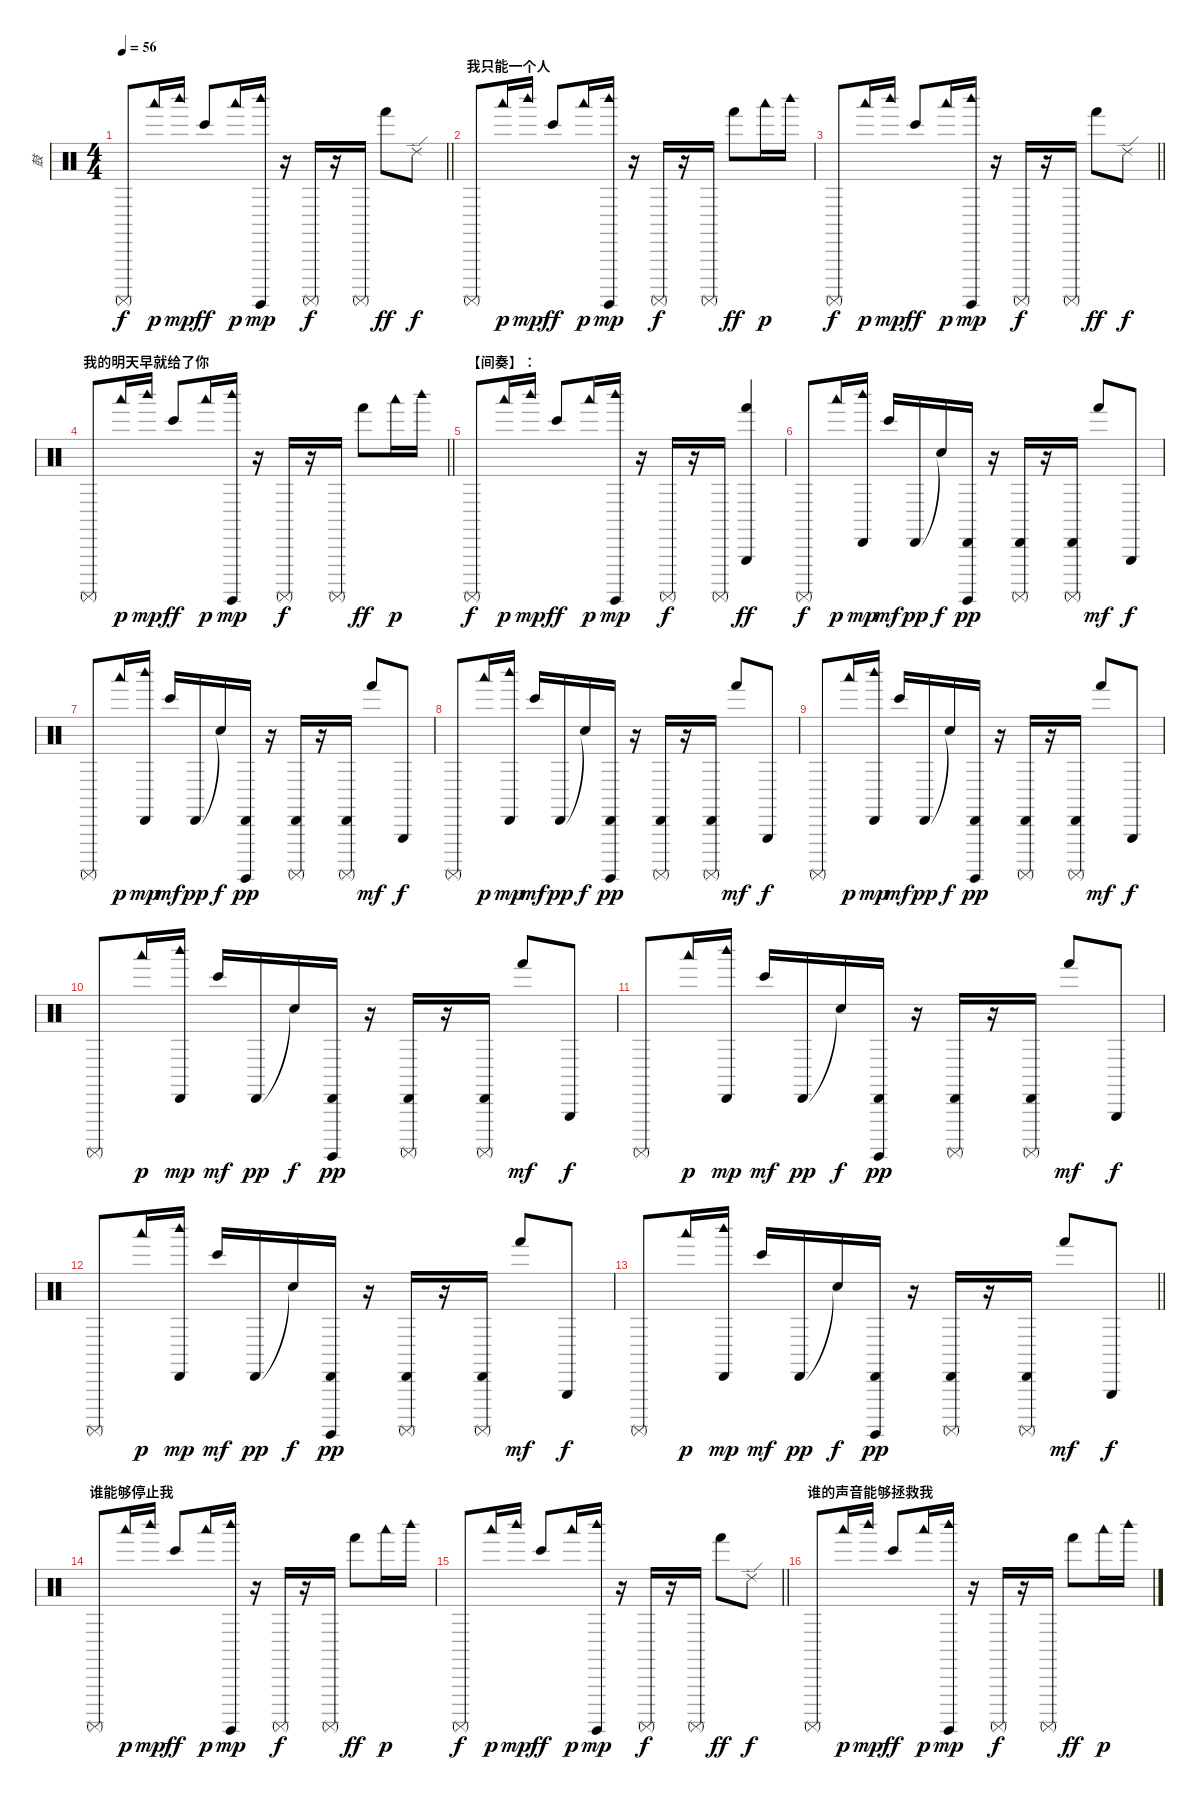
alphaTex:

\track ("鼓" "鼓") {instrument percussion}
\staff {score}
\articulation defaults
\ts (4 4)
\tempo 56
\clef neutral
\barLineRight lightlight
\ks c "Surdo (mute)".8{dy f} "Woodblock low (hit)".16{dy p} "Woodblock high (hit)".16{dy mp} "Bongo High (hit)".8{dy ff} "Woodblock low (hit)".16{dy p}
("Woodblock high (hit)" "Surdo (hit)").16{dy mp} r.16 "Surdo (mute)".16{dy f} r.16 "Surdo (mute)".16 "Hand (hit)".8{dy ff} "Ride (edge) 2".8{dy f} |
\section ("" "我只能一个人")
"Surdo (mute)".8 "Woodblock low (hit)".16{dy p} "Woodblock high (hit)".16{dy mp} "Bongo High (hit)".8{dy ff} "Woodblock low (hit)".16{dy p} ("Woodblock high (hit)" "Surdo (hit)").16{dy mp} r.16 "Surdo (mute)".16{dy f} r.16 "Surdo (mute)".16 "Hand (hit)".8{dy ff} "Woodblock low (hit)".16{dy p} "Woodblock high (hit)".16 |
\barLineRight lightlight "Surdo (mute)".8{dy f} "Woodblock low (hit)".16{dy p} "Woodblock high (hit)".16{dy mp} "Bongo High (hit)".8{dy ff} "Woodblock low (hit)".16{dy p}
("Woodblock high (hit)" "Surdo (hit)").16{dy mp} r.16 "Surdo (mute)".16{dy f} r.16 "Surdo (mute)".16 "Hand (hit)".8{dy ff} "Ride (edge) 2".8{dy f} |
\section ("" "我的明天早就给了你")
\barLineRight lightlight "Surdo (mute)".8 "Woodblock low (hit)".16{dy p} "Woodblock high (hit)".16{dy mp} "Bongo High (hit)".8{dy ff} "Woodblock low (hit)".16{dy p}
("Woodblock high (hit)" "Surdo (hit)").16{dy mp} r.16 "Surdo (mute)".16{dy f} r.16 "Surdo (mute)".16 "Hand (hit)".8{dy ff} "Woodblock low (hit)".16{dy p} "Woodblock high (hit)".16 |
\section ("" "【间奏】：")
"Surdo (mute)".8{dy f} "Woodblock low (hit)".16{dy p} "Woodblock high (hit)".16{dy mp} "Bongo High (hit)".8{dy ff} "Woodblock low (hit)".16{dy p} ("Woodblock high (hit)" "Surdo (hit)").16{dy mp} r.16 "Surdo (mute)".16{dy f} r.16 "Surdo (mute)".16 ("Triangle (hit)" "Hand (hit)").4{dy ff} |
"Surdo (mute)".8{dy f} "Woodblock low (hit)".16{dy p} ("Cabasa (hit)" "Woodblock high (hit)").16{dy mp} "Bongo High (hit)".16{dy mf} "Cabasa (hit)".16{dy pp} "Snare (hit)"{t}.16{dy f} ("Cabasa (hit)" "Surdo (hit)").16{dy pp} r.16 ("Cabasa (hit)" "Surdo (mute)").16 r.16 ("Cabasa (hit)" "Surdo (mute)").16 "Hand (hit)".8{dy mf} "Triangle (hit)".8{dy f} |
"Surdo (mute)".8 "Woodblock low (hit)".16{dy p} ("Cabasa (hit)" "Woodblock high (hit)").16{dy mp} "Bongo High (hit)".16{dy mf} "Cabasa (hit)".16{dy pp} "Snare (hit)"{t}.16{dy f} ("Cabasa (hit)" "Surdo (hit)").16{dy pp} r.16 ("Cabasa (hit)" "Surdo (mute)").16 r.16 ("Cabasa (hit)" "Surdo (mute)").16 "Hand (hit)".8{dy mf} "Triangle (hit)".8{dy f} |
"Surdo (mute)".8 "Woodblock low (hit)".16{dy p} ("Cabasa (hit)" "Woodblock high (hit)").16{dy mp} "Bongo High (hit)".16{dy mf} "Cabasa (hit)".16{dy pp} "Snare (hit)"{t}.16{dy f} ("Cabasa (hit)" "Surdo (hit)").16{dy pp} r.16 ("Cabasa (hit)" "Surdo (mute)").16 r.16 ("Cabasa (hit)" "Surdo (mute)").16 "Hand (hit)".8{dy mf} "Triangle (hit)".8{dy f} |
"Surdo (mute)".8 "Woodblock low (hit)".16{dy p} ("Cabasa (hit)" "Woodblock high (hit)").16{dy mp} "Bongo High (hit)".16{dy mf} "Cabasa (hit)".16{dy pp} "Snare (hit)"{t}.16{dy f} ("Cabasa (hit)" "Surdo (hit)").16{dy pp} r.16 ("Cabasa (hit)" "Surdo (mute)").16 r.16 ("Cabasa (hit)" "Surdo (mute)").16 "Hand (hit)".8{dy mf} "Triangle (hit)".8{dy f} |
"Surdo (mute)".8 "Woodblock low (hit)".16{dy p} ("Cabasa (hit)" "Woodblock high (hit)").16{dy mp} "Bongo High (hit)".16{dy mf} "Cabasa (hit)".16{dy pp} "Snare (hit)"{t}.16{dy f} ("Cabasa (hit)" "Surdo (hit)").16{dy pp} r.16 ("Cabasa (hit)" "Surdo (mute)").16 r.16 ("Cabasa (hit)" "Surdo (mute)").16 "Hand (hit)".8{dy mf} "Triangle (hit)".8{dy f} |
"Surdo (mute)".8 "Woodblock low (hit)".16{dy p} ("Cabasa (hit)" "Woodblock high (hit)").16{dy mp} "Bongo High (hit)".16{dy mf} "Cabasa (hit)".16{dy pp} "Snare (hit)"{t}.16{dy f} ("Cabasa (hit)" "Surdo (hit)").16{dy pp} r.16 ("Cabasa (hit)" "Surdo (mute)").16 r.16 ("Cabasa (hit)" "Surdo (mute)").16 "Hand (hit)".8{dy mf} "Triangle (hit)".8{dy f} |
"Surdo (mute)".8 "Woodblock low (hit)".16{dy p} ("Cabasa (hit)" "Woodblock high (hit)").16{dy mp} "Bongo High (hit)".16{dy mf} "Cabasa (hit)".16{dy pp} "Snare (hit)"{t}.16{dy f} ("Cabasa (hit)" "Surdo (hit)").16{dy pp} r.16 ("Cabasa (hit)" "Surdo (mute)").16 r.16 ("Cabasa (hit)" "Surdo (mute)").16 "Hand (hit)".8{dy mf} "Triangle (hit)".8{dy f} |
\barLineRight lightlight "Surdo (mute)".8 "Woodblock low (hit)".16{dy p}
("Cabasa (hit)" "Woodblock high (hit)").16{dy mp} "Bongo High (hit)".16{dy mf} "Cabasa (hit)".16{dy pp} "Snare (hit)"{t}.16{dy f} ("Cabasa (hit)" "Surdo (hit)").16{dy pp} r.16 ("Cabasa (hit)" "Surdo (mute)").16 r.16 ("Cabasa (hit)" "Surdo (mute)").16 "Hand (hit)".8{dy mf} "Triangle (hit)".8{dy f} |
\section ("" "谁能够停止我")
"Surdo (mute)".8 "Woodblock low (hit)".16{dy p} "Woodblock high (hit)".16{dy mp} "Bongo High (hit)".8{dy ff} "Woodblock low (hit)".16{dy p} ("Woodblock high (hit)" "Surdo (hit)").16{dy mp} r.16 "Surdo (mute)".16{dy f} r.16 "Surdo (mute)".16 "Hand (hit)".8{dy ff} "Woodblock low (hit)".16{dy p} "Woodblock high (hit)".16 |
\barLineRight lightlight "Surdo (mute)".8{dy f} "Woodblock low (hit)".16{dy p} "Woodblock high (hit)".16{dy mp} "Bongo High (hit)".8{dy ff} "Woodblock low (hit)".16{dy p}
("Woodblock high (hit)" "Surdo (hit)").16{dy mp} r.16 "Surdo (mute)".16{dy f} r.16 "Surdo (mute)".16 "Hand (hit)".8{dy ff} "Ride (edge) 2".8{dy f} |
\section ("" "谁的声音能够拯救我")
"Surdo (mute)".8 "Woodblock low (hit)".16{dy p} "Woodblock high (hit)".16{dy mp} "Bongo High (hit)".8{dy ff} "Woodblock low (hit)".16{dy p} ("Woodblock high (hit)" "Surdo (hit)").16{dy mp} r.16 "Surdo (mute)".16{dy f} r.16 "Surdo (mute)".16 "Hand (hit)".8{dy ff} "Woodblock low (hit)".16{dy p} "Woodblock high (hit)".16
